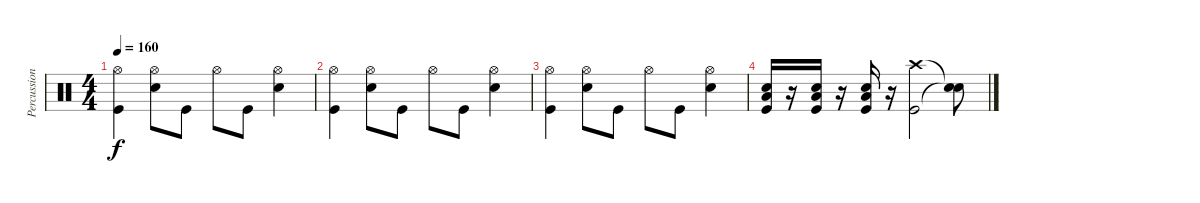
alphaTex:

\track ("Percussion" "Percussion") {instrument percussion}
\staff {score}
\articulation defaults
\ts (4 4)
\tempo 160
\clef neutral
\ks c
("Hi-Hat (open)" "Kick (hit)").4{dy f} ("Hi-Hat (open)" "Electric Snare (hit)").8 "Kick (hit)".8 "Hi-Hat (open)".8 "Kick (hit)".8 ("Hi-Hat (open)" "Electric Snare (hit)").4 |
("Hi-Hat (open)" "Kick (hit)").4 ("Hi-Hat (open)" "Electric Snare (hit)").8 "Kick (hit)".8 "Hi-Hat (open)".8 "Kick (hit)".8 ("Hi-Hat (open)" "Electric Snare (hit)").4 |
("Hi-Hat (open)" "Kick (hit)").4 ("Hi-Hat (open)" "Electric Snare (hit)").8 "Kick (hit)".8 "Hi-Hat (open)".8 "Kick (hit)".8 ("Hi-Hat (open)" "Electric Snare (hit)").4 |
("Low Floor Tom (hit)" "Electric Snare (hit)" "Kick (hit)").16 r.16 ("Low Floor Tom (hit)" "Electric Snare (hit)" "Kick (hit)").16 r.16 ("Low Floor Tom (hit)" "Electric Snare (hit)" "Kick (hit)").16 r.16 ("Crash high (hit)" "Kick (hit)").2 ("Snare (hit)"{t} "Snare (hit)"{t}).8
